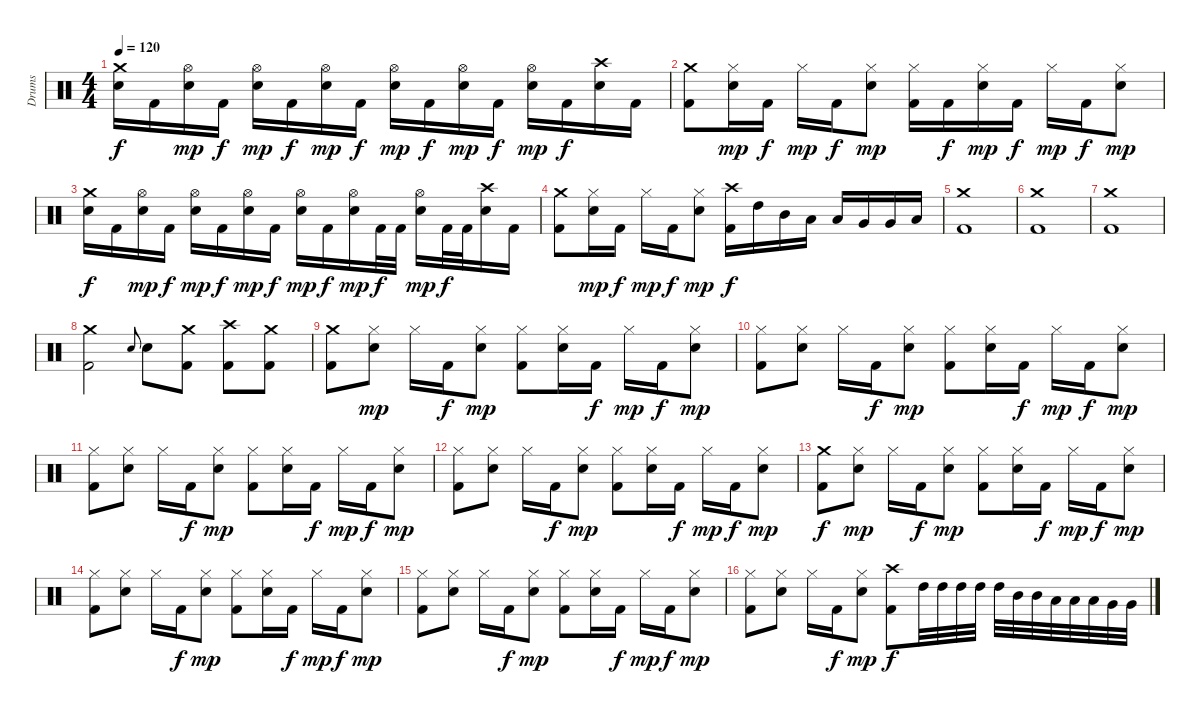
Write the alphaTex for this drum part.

\track ("Drums" "Drums") {instrument percussion}
\staff {score}
\articulation defaults
\ts (4 4)
\tempo 120
\clef neutral
\ks c
("Crash medium (hit)" "Snare (hit) 2").16{dy f} "Kick (hit) 2".16 ("Hi-Hat (open)" "Snare (hit) 2").16{dy mp} "Kick (hit) 2".16{dy f} ("Hi-Hat (open)" "Snare (hit) 2").16{dy mp} "Kick (hit) 2".16{dy f} ("Hi-Hat (open)" "Snare (hit) 2").16{dy mp} "Kick (hit) 2".16{dy f} ("Hi-Hat (open)" "Snare (hit) 2").16{dy mp} "Kick (hit) 2".16{dy f} ("Hi-Hat (open)" "Snare (hit) 2").16{dy mp} "Kick (hit) 2".16{dy f} ("Hi-Hat (open)" "Snare (hit) 2").16{dy mp} "Kick (hit) 2".16{dy f} ("Crash high (hit)" "Snare (hit) 2").16 "Kick (hit) 2".16 |
("Crash medium (hit)" "Kick (hit) 2").8 ("Hi-Hat (closed)" "Snare (hit) 2").16{dy mp} "Kick (hit) 2".16{dy f} "Hi-Hat (closed)".16{dy mp} "Kick (hit) 2".16{dy f} ("Hi-Hat (closed)" "Snare (hit) 2").8{dy mp} ("Hi-Hat (closed)" "Kick (hit) 2").16 "Kick (hit) 2".16{dy f} ("Hi-Hat (closed)" "Snare (hit) 2").16{dy mp} "Kick (hit) 2".16{dy f} "Hi-Hat (closed)".16{dy mp} "Kick (hit) 2".16{dy f} ("Hi-Hat (closed)" "Snare (hit) 2").8{dy mp} |
("Crash medium (hit)" "Snare (hit) 2").16{dy f} "Kick (hit) 2".16 ("Hi-Hat (open)" "Snare (hit) 2").16{dy mp} "Kick (hit) 2".16{dy f} ("Hi-Hat (open)" "Snare (hit) 2").16{dy mp} "Kick (hit) 2".16{dy f} ("Hi-Hat (open)" "Snare (hit) 2").16{dy mp} "Kick (hit) 2".16{dy f} ("Hi-Hat (open)" "Snare (hit) 2").16{dy mp} "Kick (hit) 2".16{dy f} ("Hi-Hat (open)" "Snare (hit) 2").16{dy mp} "Kick (hit) 2".32{dy f} "Kick (hit) 2".32 ("Hi-Hat (open)" "Snare (hit) 2").16{dy mp} "Kick (hit) 2".32{dy f} "Kick (hit) 2".32 ("Crash high (hit)" "Snare (hit) 2").16 "Kick (hit) 2".16 |
("Crash medium (hit)" "Kick (hit) 2").8 ("Hi-Hat (closed)" "Snare (hit) 2").16{dy mp} "Kick (hit) 2".16{dy f} "Hi-Hat (closed)".16{dy mp} "Kick (hit) 2".16{dy f} ("Hi-Hat (closed)" "Snare (hit) 2").8{dy mp} ("Crash high (hit)" "Kick (hit) 2").16{dy f} "High Tom (hit)".16 "Mid Tom (hit)".16 "Low Tom (hit)".16 "Low Tom (hit)".16 "Very Low Tom (hit)".16 "Very Low Tom (hit)".16 "Low Floor Tom (hit)".16 |
("Crash medium (hit)" "Kick (hit) 2").1 |
("Crash medium (hit)" "Kick (hit) 2").1 |
("Crash medium (hit)" "Kick (hit) 2").1 |
("Crash medium (hit)" "Kick (hit) 2").2 "Snare (hit) 2".8{gr onbeat} "Snare (hit) 2".8 ("Crash medium (hit)" "Kick (hit) 2").8 ("Crash high (hit)" "Kick (hit) 2").8 ("Crash medium (hit)" "Kick (hit) 2").8 |
("Crash medium (hit)" "Kick (hit) 2").8 ("Hi-Hat (closed)" "Snare (hit) 2").8{dy mp} "Hi-Hat (closed)".16 "Kick (hit) 2".16{dy f} ("Hi-Hat (closed)" "Snare (hit) 2").8{dy mp} ("Hi-Hat (closed)" "Kick (hit) 2").8 ("Hi-Hat (closed)" "Snare (hit) 2").16 "Kick (hit) 2".16{dy f} "Hi-Hat (closed)".16{dy mp} "Kick (hit) 2".16{dy f} ("Hi-Hat (closed)" "Snare (hit) 2").8{dy mp} |
("Hi-Hat (closed)" "Kick (hit) 2").8 ("Hi-Hat (closed)" "Snare (hit) 2").8 "Hi-Hat (closed)".16 "Kick (hit) 2".16{dy f} ("Hi-Hat (closed)" "Snare (hit) 2").8{dy mp} ("Hi-Hat (closed)" "Kick (hit) 2").8 ("Hi-Hat (closed)" "Snare (hit) 2").16 "Kick (hit) 2".16{dy f} "Hi-Hat (closed)".16{dy mp} "Kick (hit) 2".16{dy f} ("Hi-Hat (closed)" "Snare (hit) 2").8{dy mp} |
("Hi-Hat (closed)" "Kick (hit) 2").8 ("Hi-Hat (closed)" "Snare (hit) 2").8 "Hi-Hat (closed)".16 "Kick (hit) 2".16{dy f} ("Hi-Hat (closed)" "Snare (hit) 2").8{dy mp} ("Hi-Hat (closed)" "Kick (hit) 2").8 ("Hi-Hat (closed)" "Snare (hit) 2").16 "Kick (hit) 2".16{dy f} "Hi-Hat (closed)".16{dy mp} "Kick (hit) 2".16{dy f} ("Hi-Hat (closed)" "Snare (hit) 2").8{dy mp} |
("Hi-Hat (closed)" "Kick (hit) 2").8 ("Hi-Hat (closed)" "Snare (hit) 2").8 "Hi-Hat (closed)".16 "Kick (hit) 2".16{dy f} ("Hi-Hat (closed)" "Snare (hit) 2").8{dy mp} ("Hi-Hat (closed)" "Kick (hit) 2").8 ("Hi-Hat (closed)" "Snare (hit) 2").16 "Kick (hit) 2".16{dy f} "Hi-Hat (closed)".16{dy mp} "Kick (hit) 2".16{dy f} ("Hi-Hat (closed)" "Snare (hit) 2").8{dy mp} |
("Crash medium (hit)" "Kick (hit) 2").8{dy f} ("Hi-Hat (closed)" "Snare (hit) 2").8{dy mp} "Hi-Hat (closed)".16 "Kick (hit) 2".16{dy f} ("Hi-Hat (closed)" "Snare (hit) 2").8{dy mp} ("Hi-Hat (closed)" "Kick (hit) 2").8 ("Hi-Hat (closed)" "Snare (hit) 2").16 "Kick (hit) 2".16{dy f} "Hi-Hat (closed)".16{dy mp} "Kick (hit) 2".16{dy f} ("Hi-Hat (closed)" "Snare (hit) 2").8{dy mp} |
("Hi-Hat (closed)" "Kick (hit) 2").8 ("Hi-Hat (closed)" "Snare (hit) 2").8 "Hi-Hat (closed)".16 "Kick (hit) 2".16{dy f} ("Hi-Hat (closed)" "Snare (hit) 2").8{dy mp} ("Hi-Hat (closed)" "Kick (hit) 2").8 ("Hi-Hat (closed)" "Snare (hit) 2").16 "Kick (hit) 2".16{dy f} "Hi-Hat (closed)".16{dy mp} "Kick (hit) 2".16{dy f} ("Hi-Hat (closed)" "Snare (hit) 2").8{dy mp} |
("Hi-Hat (closed)" "Kick (hit) 2").8 ("Hi-Hat (closed)" "Snare (hit) 2").8 "Hi-Hat (closed)".16 "Kick (hit) 2".16{dy f} ("Hi-Hat (closed)" "Snare (hit) 2").8{dy mp} ("Hi-Hat (closed)" "Kick (hit) 2").8 ("Hi-Hat (closed)" "Snare (hit) 2").16 "Kick (hit) 2".16{dy f} "Hi-Hat (closed)".16{dy mp} "Kick (hit) 2".16{dy f} ("Hi-Hat (closed)" "Snare (hit) 2").8{dy mp} |
("Hi-Hat (closed)" "Kick (hit) 2").8 ("Hi-Hat (closed)" "Snare (hit) 2").8 "Hi-Hat (closed)".16 "Kick (hit) 2".16{dy f} ("Hi-Hat (closed)" "Snare (hit) 2").8{dy mp} ("Crash high (hit)" "Kick (hit) 2").8{dy f} "High Tom (hit)".32 "High Tom (hit)".32 "High Tom (hit)".32 "High Tom (hit)".32 "High Tom (hit)".32 "Mid Tom (hit)".32 "Mid Tom (hit)".32 "Low Tom (hit)".32 "Low Tom (hit)".32 "Low Tom (hit)".32 "Very Low Tom (hit)".32 "Very Low Tom (hit)".32
